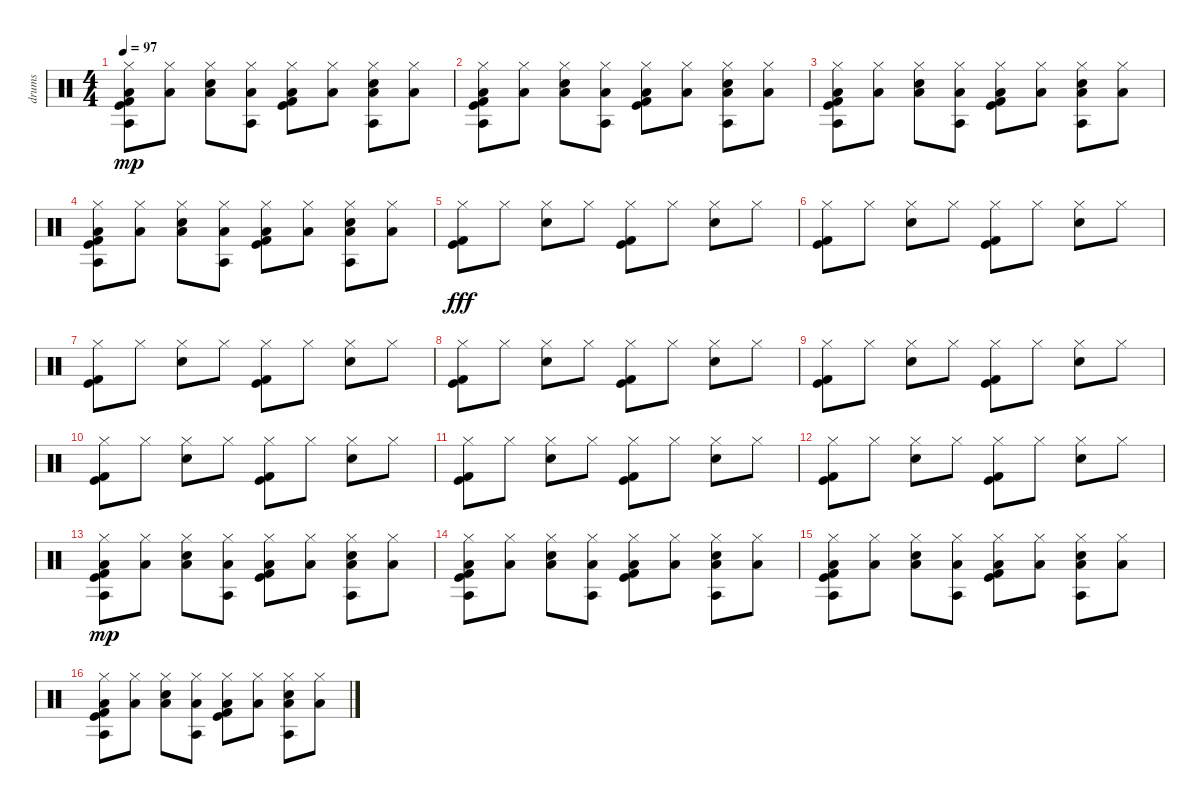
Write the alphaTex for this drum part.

\track ("drums" "drums") {instrument percussion}
\staff {score}
\articulation defaults
\ts (4 4)
\tempo 97
\clef neutral
\ks c
("Kick (hit)" "Kick (hit) 2" "Hi-Hat (closed)" "Agogo tow (hit)" "Low Floor Tom (hit)").8{dy mp} ("Hi-Hat (closed)" "Low Floor Tom (hit)").8 ("Hi-Hat (closed)" "Electric Snare (hit)" "Low Floor Tom (hit)").8 ("Hi-Hat (closed)" "Agogo tow (hit)" "Low Floor Tom (hit)").8 ("Kick (hit)" "Kick (hit) 2" "Hi-Hat (closed)" "Low Floor Tom (hit)").8 ("Hi-Hat (closed)" "Low Floor Tom (hit)").8 ("Hi-Hat (closed)" "Agogo tow (hit)" "Electric Snare (hit)" "Low Floor Tom (hit)").8 ("Hi-Hat (closed)" "Low Floor Tom (hit)").8 |
("Kick (hit)" "Kick (hit) 2" "Hi-Hat (closed)" "Agogo tow (hit)" "Low Floor Tom (hit)").8 ("Hi-Hat (closed)" "Low Floor Tom (hit)").8 ("Hi-Hat (closed)" "Electric Snare (hit)" "Low Floor Tom (hit)").8 ("Hi-Hat (closed)" "Agogo tow (hit)" "Low Floor Tom (hit)").8 ("Kick (hit)" "Kick (hit) 2" "Hi-Hat (closed)" "Low Floor Tom (hit)").8 ("Hi-Hat (closed)" "Low Floor Tom (hit)").8 ("Hi-Hat (closed)" "Agogo tow (hit)" "Electric Snare (hit)" "Low Floor Tom (hit)").8 ("Hi-Hat (closed)" "Low Floor Tom (hit)").8 |
("Kick (hit)" "Kick (hit) 2" "Hi-Hat (closed)" "Agogo tow (hit)" "Low Floor Tom (hit)").8 ("Hi-Hat (closed)" "Low Floor Tom (hit)").8 ("Hi-Hat (closed)" "Electric Snare (hit)" "Low Floor Tom (hit)").8 ("Hi-Hat (closed)" "Agogo tow (hit)" "Low Floor Tom (hit)").8 ("Kick (hit)" "Kick (hit) 2" "Hi-Hat (closed)" "Low Floor Tom (hit)").8 ("Hi-Hat (closed)" "Low Floor Tom (hit)").8 ("Hi-Hat (closed)" "Agogo tow (hit)" "Electric Snare (hit)" "Low Floor Tom (hit)").8 ("Hi-Hat (closed)" "Low Floor Tom (hit)").8 |
("Kick (hit)" "Kick (hit) 2" "Hi-Hat (closed)" "Agogo tow (hit)" "Low Floor Tom (hit)").8 ("Hi-Hat (closed)" "Low Floor Tom (hit)").8 ("Hi-Hat (closed)" "Electric Snare (hit)" "Low Floor Tom (hit)").8 ("Hi-Hat (closed)" "Agogo tow (hit)" "Low Floor Tom (hit)").8 ("Kick (hit)" "Kick (hit) 2" "Hi-Hat (closed)" "Low Floor Tom (hit)").8 ("Hi-Hat (closed)" "Low Floor Tom (hit)").8 ("Hi-Hat (closed)" "Agogo tow (hit)" "Electric Snare (hit)" "Low Floor Tom (hit)").8 ("Hi-Hat (closed)" "Low Floor Tom (hit)").8 |
("Kick (hit)" "Kick (hit) 2" "Hi-Hat (closed)").8{dy fff} "Hi-Hat (closed)".8 ("Hi-Hat (closed)" "Electric Snare (hit)").8 "Hi-Hat (closed)".8 ("Kick (hit)" "Kick (hit) 2" "Hi-Hat (closed)").8 "Hi-Hat (closed)".8 ("Hi-Hat (closed)" "Electric Snare (hit)").8 "Hi-Hat (closed)".8 |
("Kick (hit)" "Kick (hit) 2" "Hi-Hat (closed)").8 "Hi-Hat (closed)".8 ("Hi-Hat (closed)" "Electric Snare (hit)").8 "Hi-Hat (closed)".8 ("Kick (hit)" "Kick (hit) 2" "Hi-Hat (closed)").8 "Hi-Hat (closed)".8 ("Hi-Hat (closed)" "Electric Snare (hit)").8 "Hi-Hat (closed)".8 |
("Kick (hit)" "Kick (hit) 2" "Hi-Hat (closed)").8 "Hi-Hat (closed)".8 ("Hi-Hat (closed)" "Electric Snare (hit)").8 "Hi-Hat (closed)".8 ("Kick (hit)" "Kick (hit) 2" "Hi-Hat (closed)").8 "Hi-Hat (closed)".8 ("Hi-Hat (closed)" "Electric Snare (hit)").8 "Hi-Hat (closed)".8 |
("Kick (hit)" "Kick (hit) 2" "Hi-Hat (closed)").8 "Hi-Hat (closed)".8 ("Hi-Hat (closed)" "Electric Snare (hit)").8 "Hi-Hat (closed)".8 ("Kick (hit)" "Kick (hit) 2" "Hi-Hat (closed)").8 "Hi-Hat (closed)".8 ("Hi-Hat (closed)" "Electric Snare (hit)").8 "Hi-Hat (closed)".8 |
("Kick (hit)" "Kick (hit) 2" "Hi-Hat (closed)").8 "Hi-Hat (closed)".8 ("Hi-Hat (closed)" "Electric Snare (hit)").8 "Hi-Hat (closed)".8 ("Kick (hit)" "Kick (hit) 2" "Hi-Hat (closed)").8 "Hi-Hat (closed)".8 ("Hi-Hat (closed)" "Electric Snare (hit)").8 "Hi-Hat (closed)".8 |
("Kick (hit)" "Kick (hit) 2" "Hi-Hat (closed)").8 "Hi-Hat (closed)".8 ("Hi-Hat (closed)" "Electric Snare (hit)").8 "Hi-Hat (closed)".8 ("Kick (hit)" "Kick (hit) 2" "Hi-Hat (closed)").8 "Hi-Hat (closed)".8 ("Hi-Hat (closed)" "Electric Snare (hit)").8 "Hi-Hat (closed)".8 |
("Kick (hit)" "Kick (hit) 2" "Hi-Hat (closed)").8 "Hi-Hat (closed)".8 ("Hi-Hat (closed)" "Electric Snare (hit)").8 "Hi-Hat (closed)".8 ("Kick (hit)" "Kick (hit) 2" "Hi-Hat (closed)").8 "Hi-Hat (closed)".8 ("Hi-Hat (closed)" "Electric Snare (hit)").8 "Hi-Hat (closed)".8 |
("Kick (hit)" "Kick (hit) 2" "Hi-Hat (closed)").8 "Hi-Hat (closed)".8 ("Hi-Hat (closed)" "Electric Snare (hit)").8 "Hi-Hat (closed)".8 ("Kick (hit)" "Kick (hit) 2" "Hi-Hat (closed)").8 "Hi-Hat (closed)".8 ("Hi-Hat (closed)" "Electric Snare (hit)").8 "Hi-Hat (closed)".8 |
("Kick (hit)" "Kick (hit) 2" "Agogo tow (hit)" "Hi-Hat (closed)" "Low Floor Tom (hit)").8{dy mp} ("Hi-Hat (closed)" "Low Floor Tom (hit)").8 ("Hi-Hat (closed)" "Electric Snare (hit)" "Low Floor Tom (hit)").8 ("Agogo tow (hit)" "Hi-Hat (closed)" "Low Floor Tom (hit)").8 ("Kick (hit)" "Kick (hit) 2" "Hi-Hat (closed)" "Low Floor Tom (hit)").8 ("Hi-Hat (closed)" "Low Floor Tom (hit)").8 ("Agogo tow (hit)" "Hi-Hat (closed)" "Electric Snare (hit)" "Low Floor Tom (hit)").8 ("Hi-Hat (closed)" "Low Floor Tom (hit)").8 |
("Kick (hit)" "Kick (hit) 2" "Agogo tow (hit)" "Hi-Hat (closed)" "Low Floor Tom (hit)").8 ("Hi-Hat (closed)" "Low Floor Tom (hit)").8 ("Hi-Hat (closed)" "Electric Snare (hit)" "Low Floor Tom (hit)").8 ("Agogo tow (hit)" "Hi-Hat (closed)" "Low Floor Tom (hit)").8 ("Kick (hit)" "Kick (hit) 2" "Hi-Hat (closed)" "Low Floor Tom (hit)").8 ("Hi-Hat (closed)" "Low Floor Tom (hit)").8 ("Agogo tow (hit)" "Hi-Hat (closed)" "Electric Snare (hit)" "Low Floor Tom (hit)").8 ("Hi-Hat (closed)" "Low Floor Tom (hit)").8 |
("Kick (hit)" "Kick (hit) 2" "Hi-Hat (closed)" "Agogo tow (hit)" "Low Floor Tom (hit)").8 ("Hi-Hat (closed)" "Low Floor Tom (hit)").8 ("Hi-Hat (closed)" "Electric Snare (hit)" "Low Floor Tom (hit)").8 ("Hi-Hat (closed)" "Agogo tow (hit)" "Low Floor Tom (hit)").8 ("Kick (hit)" "Kick (hit) 2" "Hi-Hat (closed)" "Low Floor Tom (hit)").8 ("Hi-Hat (closed)" "Low Floor Tom (hit)").8 ("Hi-Hat (closed)" "Agogo tow (hit)" "Electric Snare (hit)" "Low Floor Tom (hit)").8 ("Hi-Hat (closed)" "Low Floor Tom (hit)").8 |
("Kick (hit)" "Kick (hit) 2" "Agogo tow (hit)" "Hi-Hat (closed)" "Low Floor Tom (hit)").8 ("Hi-Hat (closed)" "Low Floor Tom (hit)").8 ("Hi-Hat (closed)" "Electric Snare (hit)" "Low Floor Tom (hit)").8 ("Agogo tow (hit)" "Hi-Hat (closed)" "Low Floor Tom (hit)").8 ("Kick (hit)" "Kick (hit) 2" "Hi-Hat (closed)" "Low Floor Tom (hit)").8 ("Hi-Hat (closed)" "Low Floor Tom (hit)").8 ("Agogo tow (hit)" "Hi-Hat (closed)" "Electric Snare (hit)" "Low Floor Tom (hit)").8 ("Hi-Hat (closed)" "Low Floor Tom (hit)").8
